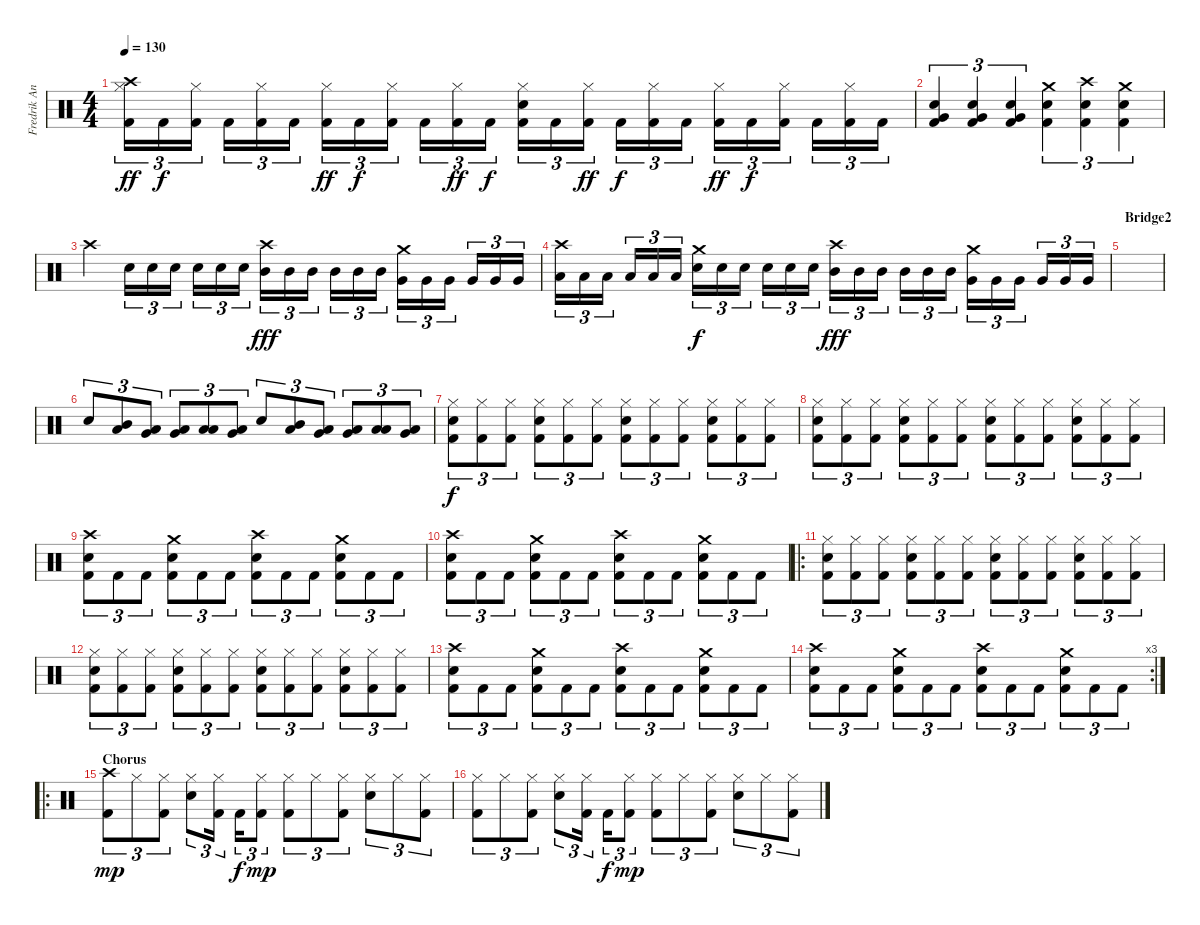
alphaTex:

\track ("Fredrik Andersson" "Fredrik An") {instrument percussion}
\staff {score}
\articulation defaults
\ts (4 4)
\tempo 130
\clef neutral
\ks c
("Hi-Hat (closed)" "Crash high (hit)" "Kick (hit) 2").16{tu (3 2) dy ff} "Kick (hit) 2".16{tu (3 2) dy f} ("Hi-Hat (closed)" "Kick (hit) 2").16{tu (3 2)} "Kick (hit) 2".16{tu (3 2)} ("Hi-Hat (closed)" "Kick (hit) 2").16{tu (3 2)} "Kick (hit) 2".16{tu (3 2)} ("Hi-Hat (closed)" "Kick (hit) 2").16{tu (3 2) dy ff} "Kick (hit) 2".16{tu (3 2) dy f} ("Hi-Hat (closed)" "Kick (hit) 2").16{tu (3 2)} "Kick (hit) 2".16{tu (3 2)} ("Hi-Hat (closed)" "Kick (hit) 2").16{tu (3 2) dy ff} "Kick (hit) 2".16{tu (3 2) dy f} ("Hi-Hat (closed)" "Snare (hit) 2" "Kick (hit) 2").16{tu (3 2)} "Kick (hit) 2".16{tu (3 2)} ("Hi-Hat (closed)" "Kick (hit) 2").16{tu (3 2) dy ff} "Kick (hit) 2".16{tu (3 2) dy f} ("Hi-Hat (closed)" "Kick (hit) 2").16{tu (3 2)} "Kick (hit) 2".16{tu (3 2)} ("Hi-Hat (closed)" "Kick (hit) 2").16{tu (3 2) dy ff} "Kick (hit) 2".16{tu (3 2) dy f} ("Hi-Hat (closed)" "Kick (hit) 2").16{tu (3 2)} "Kick (hit) 2".16{tu (3 2)} ("Hi-Hat (closed)" "Kick (hit) 2").16{tu (3 2)} "Kick (hit) 2".16{tu (3 2)} |
("Very Low Tom (hit)" "Snare (hit) 2" "Kick (hit) 2").4{tu (3 2)} ("Very Low Tom (hit)" "Snare (hit) 2" "Kick (hit) 2").4{tu (3 2)} ("Very Low Tom (hit)" "Snare (hit) 2" "Kick (hit) 2").4{tu (3 2)} ("Crash medium (hit)" "Snare (hit) 2" "Kick (hit) 2").4{tu (3 2)} ("Crash high (hit)" "Snare (hit) 2" "Kick (hit) 2").4{tu (3 2)} ("Crash medium (hit)" "Snare (hit) 2" "Kick (hit) 2").4{tu (3 2)} |
"Crash high (hit)".4 "Snare (hit) 2".16{tu (3 2)} "Snare (hit) 2".16{tu (3 2)} "Snare (hit) 2".16{tu (3 2)} "Snare (hit) 2".16{tu (3 2)} "Snare (hit) 2".16{tu (3 2)} "Snare (hit) 2".16{tu (3 2)} ("Crash high (hit)" "Mid Tom (hit)").16{tu (3 2) dy fff} "Mid Tom (hit)".16{tu (3 2)} "Mid Tom (hit)".16{tu (3 2)} "Mid Tom (hit)".16{tu (3 2)} "Mid Tom (hit)".16{tu (3 2)} "Mid Tom (hit)".16{tu (3 2)} ("Crash medium (hit)" "Very Low Tom (hit)").16{tu (3 2)} "Very Low Tom (hit)".16{tu (3 2)} "Very Low Tom (hit)".16{tu (3 2)} "Very Low Tom (hit)".16{tu (3 2)} "Very Low Tom (hit)".16{tu (3 2)} "Very Low Tom (hit)".16{tu (3 2)} |
("Crash high (hit)" "Low Floor Tom (hit)").16{tu (3 2)} "Low Floor Tom (hit)".16{tu (3 2)} "Low Floor Tom (hit)".16{tu (3 2)} "Low Floor Tom (hit)".16{tu (3 2)} "Low Floor Tom (hit)".16{tu (3 2)} "Low Floor Tom (hit)".16{tu (3 2)} ("Crash medium (hit)" "Snare (hit) 2").16{tu (3 2) dy f} "Snare (hit) 2".16{tu (3 2)} "Snare (hit) 2".16{tu (3 2)} "Snare (hit) 2".16{tu (3 2)} "Snare (hit) 2".16{tu (3 2)} "Snare (hit) 2".16{tu (3 2)} ("Crash high (hit)" "Mid Tom (hit)").16{tu (3 2) dy fff} "Mid Tom (hit)".16{tu (3 2)} "Mid Tom (hit)".16{tu (3 2)} "Mid Tom (hit)".16{tu (3 2)} "Mid Tom (hit)".16{tu (3 2)} "Mid Tom (hit)".16{tu (3 2)} ("Crash medium (hit)" "Very Low Tom (hit)").16{tu (3 2)} "Very Low Tom (hit)".16{tu (3 2)} "Very Low Tom (hit)".16{tu (3 2)} "Very Low Tom (hit)".16{tu (3 2)} "Very Low Tom (hit)".16{tu (3 2)} "Very Low Tom (hit)".16{tu (3 2)} |
\section ("" "Bridge2")
|
"Snare (hit) 2".8{tu (3 2)} ("Mid Tom (hit)" "Low Tom (hit)").8{tu (3 2)} ("Low Tom (hit)" "Very Low Tom (hit)").8{tu (3 2)} ("Very Low Tom (hit)" "Low Floor Tom (hit)").8{tu (3 2)} ("Low Floor Tom (hit)" "Low Floor Tom (hit)").8{tu (3 2)} ("Low Tom (hit)" "Very Low Tom (hit)").8{tu (3 2)} "Snare (hit) 2".8{tu (3 2)} ("Mid Tom (hit)" "Low Tom (hit)").8{tu (3 2)} ("Low Tom (hit)" "Very Low Tom (hit)").8{tu (3 2)} ("Very Low Tom (hit)" "Low Floor Tom (hit)").8{tu (3 2)} ("Low Floor Tom (hit)" "Low Floor Tom (hit)").8{tu (3 2)} ("Low Tom (hit)" "Very Low Tom (hit)").8{tu (3 2)} |
("Hi-Hat (closed)" "Snare (hit) 2" "Kick (hit) 2").8{tu (3 2) dy f} ("Hi-Hat (closed)" "Kick (hit) 2").8{tu (3 2)} ("Hi-Hat (closed)" "Kick (hit) 2").8{tu (3 2)} ("Hi-Hat (closed)" "Snare (hit) 2" "Kick (hit) 2").8{tu (3 2)} ("Hi-Hat (closed)" "Kick (hit) 2").8{tu (3 2)} ("Hi-Hat (closed)" "Kick (hit) 2").8{tu (3 2)} ("Hi-Hat (closed)" "Snare (hit) 2" "Kick (hit) 2").8{tu (3 2)} ("Hi-Hat (closed)" "Kick (hit) 2").8{tu (3 2)} ("Hi-Hat (closed)" "Kick (hit) 2").8{tu (3 2)} ("Hi-Hat (closed)" "Snare (hit) 2" "Kick (hit) 2").8{tu (3 2)} ("Hi-Hat (closed)" "Kick (hit) 2").8{tu (3 2)} ("Hi-Hat (closed)" "Kick (hit) 2").8{tu (3 2)} |
("Hi-Hat (closed)" "Snare (hit) 2" "Kick (hit) 2").8{tu (3 2)} ("Hi-Hat (closed)" "Kick (hit) 2").8{tu (3 2)} ("Hi-Hat (closed)" "Kick (hit) 2").8{tu (3 2)} ("Hi-Hat (closed)" "Snare (hit) 2" "Kick (hit) 2").8{tu (3 2)} ("Hi-Hat (closed)" "Kick (hit) 2").8{tu (3 2)} ("Hi-Hat (closed)" "Kick (hit) 2").8{tu (3 2)} ("Hi-Hat (closed)" "Snare (hit) 2" "Kick (hit) 2").8{tu (3 2)} ("Hi-Hat (closed)" "Kick (hit) 2").8{tu (3 2)} ("Hi-Hat (closed)" "Kick (hit) 2").8{tu (3 2)} ("Hi-Hat (closed)" "Snare (hit) 2" "Kick (hit) 2").8{tu (3 2)} ("Hi-Hat (closed)" "Kick (hit) 2").8{tu (3 2)} ("Hi-Hat (closed)" "Kick (hit) 2").8{tu (3 2)} |
("Crash high (hit)" "Snare (hit) 2" "Kick (hit) 2").8{tu (3 2)} "Kick (hit) 2".8{tu (3 2)} "Kick (hit) 2".8{tu (3 2)} ("Crash medium (hit)" "Snare (hit) 2" "Kick (hit) 2").8{tu (3 2)} "Kick (hit) 2".8{tu (3 2)} "Kick (hit) 2".8{tu (3 2)} ("Crash high (hit)" "Snare (hit) 2" "Kick (hit) 2").8{tu (3 2)} "Kick (hit) 2".8{tu (3 2)} "Kick (hit) 2".8{tu (3 2)} ("Crash medium (hit)" "Snare (hit) 2" "Kick (hit) 2").8{tu (3 2)} "Kick (hit) 2".8{tu (3 2)} "Kick (hit) 2".8{tu (3 2)} |
("Crash high (hit)" "Snare (hit) 2" "Kick (hit) 2").8{tu (3 2)} "Kick (hit) 2".8{tu (3 2)} "Kick (hit) 2".8{tu (3 2)} ("Crash medium (hit)" "Snare (hit) 2" "Kick (hit) 2").8{tu (3 2)} "Kick (hit) 2".8{tu (3 2)} "Kick (hit) 2".8{tu (3 2)} ("Crash high (hit)" "Snare (hit) 2" "Kick (hit) 2").8{tu (3 2)} "Kick (hit) 2".8{tu (3 2)} "Kick (hit) 2".8{tu (3 2)} ("Crash medium (hit)" "Snare (hit) 2" "Kick (hit) 2").8{tu (3 2)} "Kick (hit) 2".8{tu (3 2)} "Kick (hit) 2".8{tu (3 2)} |
\ro
("Hi-Hat (closed)" "Snare (hit) 2" "Kick (hit) 2").8{tu (3 2)} ("Hi-Hat (closed)" "Kick (hit) 2").8{tu (3 2)} ("Hi-Hat (closed)" "Kick (hit) 2").8{tu (3 2)} ("Hi-Hat (closed)" "Snare (hit) 2" "Kick (hit) 2").8{tu (3 2)} ("Hi-Hat (closed)" "Kick (hit) 2").8{tu (3 2)} ("Hi-Hat (closed)" "Kick (hit) 2").8{tu (3 2)} ("Hi-Hat (closed)" "Snare (hit) 2" "Kick (hit) 2").8{tu (3 2)} ("Hi-Hat (closed)" "Kick (hit) 2").8{tu (3 2)} ("Hi-Hat (closed)" "Kick (hit) 2").8{tu (3 2)} ("Hi-Hat (closed)" "Snare (hit) 2" "Kick (hit) 2").8{tu (3 2)} ("Hi-Hat (closed)" "Kick (hit) 2").8{tu (3 2)} ("Hi-Hat (closed)" "Kick (hit) 2").8{tu (3 2)} |
("Hi-Hat (closed)" "Snare (hit) 2" "Kick (hit) 2").8{tu (3 2)} ("Hi-Hat (closed)" "Kick (hit) 2").8{tu (3 2)} ("Hi-Hat (closed)" "Kick (hit) 2").8{tu (3 2)} ("Hi-Hat (closed)" "Snare (hit) 2" "Kick (hit) 2").8{tu (3 2)} ("Hi-Hat (closed)" "Kick (hit) 2").8{tu (3 2)} ("Hi-Hat (closed)" "Kick (hit) 2").8{tu (3 2)} ("Hi-Hat (closed)" "Snare (hit) 2" "Kick (hit) 2").8{tu (3 2)} ("Hi-Hat (closed)" "Kick (hit) 2").8{tu (3 2)} ("Hi-Hat (closed)" "Kick (hit) 2").8{tu (3 2)} ("Hi-Hat (closed)" "Snare (hit) 2" "Kick (hit) 2").8{tu (3 2)} ("Hi-Hat (closed)" "Kick (hit) 2").8{tu (3 2)} ("Hi-Hat (closed)" "Kick (hit) 2").8{tu (3 2)} |
("Crash high (hit)" "Snare (hit) 2" "Kick (hit) 2").8{tu (3 2)} "Kick (hit) 2".8{tu (3 2)} "Kick (hit) 2".8{tu (3 2)} ("Crash medium (hit)" "Snare (hit) 2" "Kick (hit) 2").8{tu (3 2)} "Kick (hit) 2".8{tu (3 2)} "Kick (hit) 2".8{tu (3 2)} ("Crash high (hit)" "Snare (hit) 2" "Kick (hit) 2").8{tu (3 2)} "Kick (hit) 2".8{tu (3 2)} "Kick (hit) 2".8{tu (3 2)} ("Crash medium (hit)" "Snare (hit) 2" "Kick (hit) 2").8{tu (3 2)} "Kick (hit) 2".8{tu (3 2)} "Kick (hit) 2".8{tu (3 2)} |
\rc 3
("Crash high (hit)" "Snare (hit) 2" "Kick (hit) 2").8{tu (3 2)} "Kick (hit) 2".8{tu (3 2)} "Kick (hit) 2".8{tu (3 2)} ("Crash medium (hit)" "Snare (hit) 2" "Kick (hit) 2").8{tu (3 2)} "Kick (hit) 2".8{tu (3 2)} "Kick (hit) 2".8{tu (3 2)} ("Crash high (hit)" "Snare (hit) 2" "Kick (hit) 2").8{tu (3 2)} "Kick (hit) 2".8{tu (3 2)} "Kick (hit) 2".8{tu (3 2)} ("Crash medium (hit)" "Snare (hit) 2" "Kick (hit) 2").8{tu (3 2)} "Kick (hit) 2".8{tu (3 2)} "Kick (hit) 2".8{tu (3 2)} |
\ro
\section ("" "Chorus")
("Crash high (hit)" "Kick (hit) 2").8{tu (3 2) dy mp} "Hi-Hat (closed)".8{tu (3 2)} ("Hi-Hat (closed)" "Kick (hit) 2").8{tu (3 2)} ("Hi-Hat (closed)" "Snare (hit) 2").8{tu (3 2)} ("Hi-Hat (closed)" "Kick (hit) 2").16{tu (3 2)} "Kick (hit) 2".16{tu (3 2) dy f} ("Hi-Hat (closed)" "Kick (hit) 2").8{tu (3 2) dy mp} ("Hi-Hat (closed)" "Kick (hit) 2").8{tu (3 2)} "Hi-Hat (closed)".8{tu (3 2)} ("Hi-Hat (closed)" "Kick (hit) 2").8{tu (3 2)} ("Hi-Hat (closed)" "Snare (hit) 2").8{tu (3 2)} "Hi-Hat (closed)".8{tu (3 2)} ("Hi-Hat (closed)" "Kick (hit) 2").8{tu (3 2)} |
("Hi-Hat (closed)" "Kick (hit) 2").8{tu (3 2)} "Hi-Hat (closed)".8{tu (3 2)} ("Hi-Hat (closed)" "Kick (hit) 2").8{tu (3 2)} ("Hi-Hat (closed)" "Snare (hit) 2").8{tu (3 2)} ("Hi-Hat (closed)" "Kick (hit) 2").16{tu (3 2)} "Kick (hit) 2".16{tu (3 2) dy f} ("Hi-Hat (closed)" "Kick (hit) 2").8{tu (3 2) dy mp} ("Hi-Hat (closed)" "Kick (hit) 2").8{tu (3 2)} "Hi-Hat (closed)".8{tu (3 2)} ("Hi-Hat (closed)" "Kick (hit) 2").8{tu (3 2)} ("Hi-Hat (closed)" "Snare (hit) 2").8{tu (3 2)} "Hi-Hat (closed)".8{tu (3 2)} ("Hi-Hat (closed)" "Kick (hit) 2").8{tu (3 2)}
